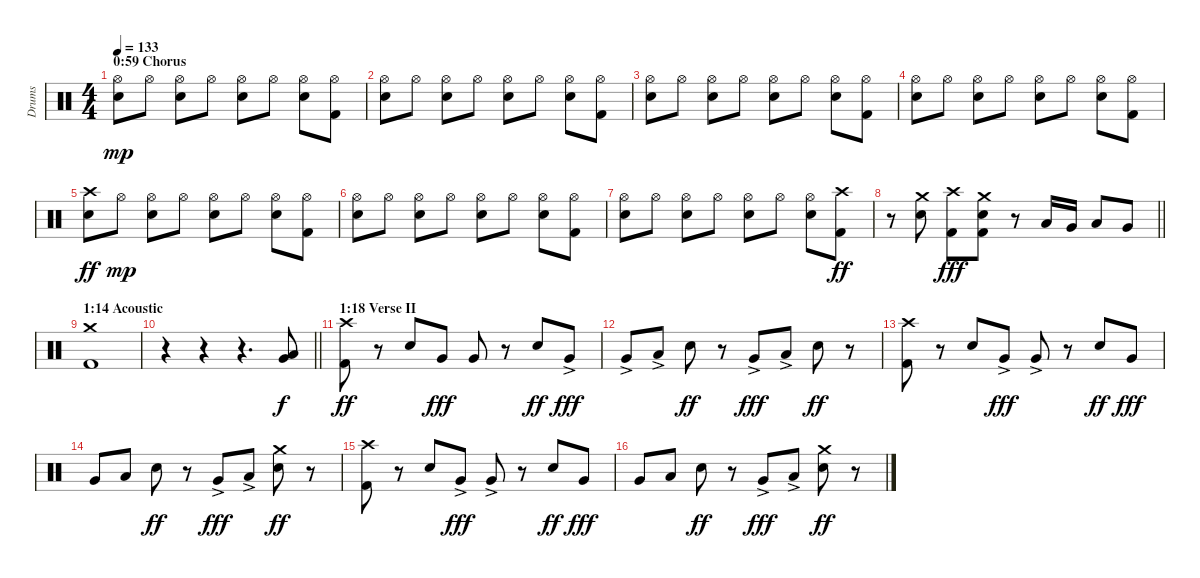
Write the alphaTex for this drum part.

\track ("Drums" "Drums") {instrument percussion}
\staff {score}
\articulation defaults
\ts (4 4)
\section ("" "0:59 Chorus")
\tempo 133
\clef neutral
\ks c
("Electric Snare (hit)" "Hi-Hat (open)").8{dy mp} "Hi-Hat (open)".8 ("Electric Snare (hit)" "Hi-Hat (open)").8 "Hi-Hat (open)".8 ("Electric Snare (hit)" "Hi-Hat (open)").8 "Hi-Hat (open)".8 ("Electric Snare (hit)" "Hi-Hat (open)").8 ("Kick (hit) 2" "Hi-Hat (open)").8 |
("Electric Snare (hit)" "Hi-Hat (open)").8 "Hi-Hat (open)".8 ("Electric Snare (hit)" "Hi-Hat (open)").8 "Hi-Hat (open)".8 ("Electric Snare (hit)" "Hi-Hat (open)").8 "Hi-Hat (open)".8 ("Electric Snare (hit)" "Hi-Hat (open)").8 ("Kick (hit) 2" "Hi-Hat (open)").8 |
("Electric Snare (hit)" "Hi-Hat (open)").8 "Hi-Hat (open)".8 ("Electric Snare (hit)" "Hi-Hat (open)").8 "Hi-Hat (open)".8 ("Electric Snare (hit)" "Hi-Hat (open)").8 "Hi-Hat (open)".8 ("Electric Snare (hit)" "Hi-Hat (open)").8 ("Kick (hit) 2" "Hi-Hat (open)").8 |
("Electric Snare (hit)" "Hi-Hat (open)").8 "Hi-Hat (open)".8 ("Electric Snare (hit)" "Hi-Hat (open)").8 "Hi-Hat (open)".8 ("Electric Snare (hit)" "Hi-Hat (open)").8 "Hi-Hat (open)".8 ("Electric Snare (hit)" "Hi-Hat (open)").8 ("Kick (hit) 2" "Hi-Hat (open)").8 |
("Electric Snare (hit)" "Crash high (hit)").8{dy ff} "Hi-Hat (open)".8{dy mp} ("Electric Snare (hit)" "Hi-Hat (open)").8 "Hi-Hat (open)".8 ("Electric Snare (hit)" "Hi-Hat (open)").8 "Hi-Hat (open)".8 ("Electric Snare (hit)" "Hi-Hat (open)").8 ("Kick (hit) 2" "Hi-Hat (open)").8 |
("Electric Snare (hit)" "Hi-Hat (open)").8 "Hi-Hat (open)".8 ("Electric Snare (hit)" "Hi-Hat (open)").8 "Hi-Hat (open)".8 ("Electric Snare (hit)" "Hi-Hat (open)").8 "Hi-Hat (open)".8 ("Electric Snare (hit)" "Hi-Hat (open)").8 ("Kick (hit) 2" "Hi-Hat (open)").8 |
("Electric Snare (hit)" "Hi-Hat (open)").8 "Hi-Hat (open)".8 ("Electric Snare (hit)" "Hi-Hat (open)").8 "Hi-Hat (open)".8 ("Electric Snare (hit)" "Hi-Hat (open)").8 "Hi-Hat (open)".8 ("Electric Snare (hit)" "Hi-Hat (open)").8 ("Kick (hit) 2" "Crash high (hit)").8{dy ff} |
\barLineRight lightlight
r.8 ("Electric Snare (hit)" "Crash medium (hit)").8 ("Kick (hit) 2" "Crash high (hit)").8{dy fff} ("Kick (hit) 2" "Electric Snare (hit)" "Crash medium (hit)").8 r.8 "Low Tom (hit)".16 "Very Low Tom (hit)".16 "Low Tom (hit)".8 "Very Low Tom (hit)".8 |
\section ("" "1:14 Acoustic")
("Kick (hit) 2" "Crash medium (hit)").1 |
\barLineRight lightlight
r.4 r.4 r.4{d} ("Very Low Tom (hit)" "Low Tom (hit)").8{dy f} |
\section ("" "1:18 Verse II")
("Kick (hit) 2" "Crash high (hit)").8{dy ff} r.8 "Electric Snare (hit)".8 "Very Low Tom (hit)".8{dy fff} "Very Low Tom (hit)".8 r.8 "Electric Snare (hit)".8{dy ff} "Very Low Tom (hit)"{ac}.8{dy fff} |
"Very Low Tom (hit)"{ac}.8 "Low Tom (hit)"{ac}.8 "Electric Snare (hit)".8{dy ff} r.8 "Very Low Tom (hit)"{ac}.8{dy fff} "Low Tom (hit)"{ac}.8 "Electric Snare (hit)".8{dy ff} r.8 |
("Kick (hit) 2" "Crash high (hit)").8 r.8 "Electric Snare (hit)".8 "Very Low Tom (hit)"{ac}.8{dy fff} "Very Low Tom (hit)"{ac}.8 r.8 "Electric Snare (hit)".8{dy ff} "Very Low Tom (hit)".8{dy fff} |
"Very Low Tom (hit)".8 "Low Tom (hit)".8 "Electric Snare (hit)".8{dy ff} r.8 "Very Low Tom (hit)"{ac}.8{dy fff} "Low Tom (hit)"{ac}.8 ("Electric Snare (hit)" "Crash medium (hit)").8{dy ff} r.8 |
("Kick (hit) 2" "Crash high (hit)").8 r.8 "Electric Snare (hit)".8 "Very Low Tom (hit)"{ac}.8{dy fff} "Very Low Tom (hit)"{ac}.8 r.8 "Electric Snare (hit)".8{dy ff} "Very Low Tom (hit)".8{dy fff} |
"Very Low Tom (hit)".8 "Low Tom (hit)".8 "Electric Snare (hit)".8{dy ff} r.8 "Very Low Tom (hit)"{ac}.8{dy fff} "Low Tom (hit)"{ac}.8 ("Electric Snare (hit)" "Crash medium (hit)").8{dy ff} r.8
